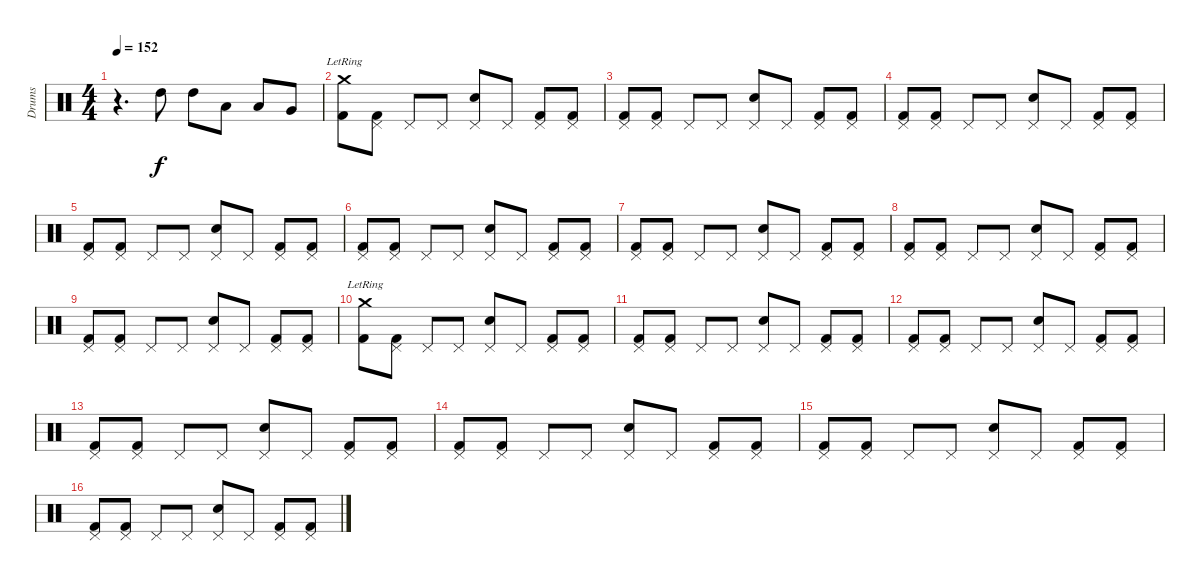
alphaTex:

\track ("Drums" "Drums") {instrument percussion}
\staff {score}
\articulation defaults
\ts (4 4)
\tempo 152
\clef neutral
\ks c
r.4{d dy f} "High Tom (hit)".8 "High Tom (hit)".8 "Low Tom (hit)".8 "Low Tom (hit)".8 "Very Low Tom (hit)".8 |
("Crash medium (hit)"{lr} "Kick (hit) 2").8 ("Pedal Hi-Hat (hit)" "Kick (hit) 2").8 "Pedal Hi-Hat (hit)".8 "Pedal Hi-Hat (hit)".8 ("Pedal Hi-Hat (hit)" "Electric Snare (hit)").8 "Pedal Hi-Hat (hit)".8 ("Pedal Hi-Hat (hit)" "Kick (hit) 2").8 ("Pedal Hi-Hat (hit)" "Kick (hit) 2").8 |
("Pedal Hi-Hat (hit)" "Kick (hit) 2").8 ("Pedal Hi-Hat (hit)" "Kick (hit) 2").8 "Pedal Hi-Hat (hit)".8 "Pedal Hi-Hat (hit)".8 ("Pedal Hi-Hat (hit)" "Electric Snare (hit)").8 "Pedal Hi-Hat (hit)".8 ("Pedal Hi-Hat (hit)" "Kick (hit) 2").8 ("Pedal Hi-Hat (hit)" "Kick (hit) 2").8 |
("Pedal Hi-Hat (hit)" "Kick (hit) 2").8 ("Pedal Hi-Hat (hit)" "Kick (hit) 2").8 "Pedal Hi-Hat (hit)".8 "Pedal Hi-Hat (hit)".8 ("Pedal Hi-Hat (hit)" "Electric Snare (hit)").8 "Pedal Hi-Hat (hit)".8 ("Pedal Hi-Hat (hit)" "Kick (hit) 2").8 ("Pedal Hi-Hat (hit)" "Kick (hit) 2").8 |
("Pedal Hi-Hat (hit)" "Kick (hit) 2").8 ("Pedal Hi-Hat (hit)" "Kick (hit) 2").8 "Pedal Hi-Hat (hit)".8 "Pedal Hi-Hat (hit)".8 ("Pedal Hi-Hat (hit)" "Electric Snare (hit)").8 "Pedal Hi-Hat (hit)".8 ("Pedal Hi-Hat (hit)" "Kick (hit) 2").8 ("Pedal Hi-Hat (hit)" "Kick (hit) 2").8 |
("Pedal Hi-Hat (hit)" "Kick (hit) 2").8 ("Pedal Hi-Hat (hit)" "Kick (hit) 2").8 "Pedal Hi-Hat (hit)".8 "Pedal Hi-Hat (hit)".8 ("Pedal Hi-Hat (hit)" "Electric Snare (hit)").8 "Pedal Hi-Hat (hit)".8 ("Pedal Hi-Hat (hit)" "Kick (hit) 2").8 ("Pedal Hi-Hat (hit)" "Kick (hit) 2").8 |
("Pedal Hi-Hat (hit)" "Kick (hit) 2").8 ("Pedal Hi-Hat (hit)" "Kick (hit) 2").8 "Pedal Hi-Hat (hit)".8 "Pedal Hi-Hat (hit)".8 ("Pedal Hi-Hat (hit)" "Electric Snare (hit)").8 "Pedal Hi-Hat (hit)".8 ("Pedal Hi-Hat (hit)" "Kick (hit) 2").8 ("Pedal Hi-Hat (hit)" "Kick (hit) 2").8 |
("Pedal Hi-Hat (hit)" "Kick (hit) 2").8 ("Pedal Hi-Hat (hit)" "Kick (hit) 2").8 "Pedal Hi-Hat (hit)".8 "Pedal Hi-Hat (hit)".8 ("Pedal Hi-Hat (hit)" "Electric Snare (hit)").8 "Pedal Hi-Hat (hit)".8 ("Pedal Hi-Hat (hit)" "Kick (hit) 2").8 ("Pedal Hi-Hat (hit)" "Kick (hit) 2").8 |
("Pedal Hi-Hat (hit)" "Kick (hit) 2").8 ("Pedal Hi-Hat (hit)" "Kick (hit) 2").8 "Pedal Hi-Hat (hit)".8 "Pedal Hi-Hat (hit)".8 ("Pedal Hi-Hat (hit)" "Electric Snare (hit)").8 "Pedal Hi-Hat (hit)".8 ("Pedal Hi-Hat (hit)" "Kick (hit) 2").8 ("Pedal Hi-Hat (hit)" "Kick (hit) 2").8 |
("Crash medium (hit)"{lr} "Kick (hit) 2").8 ("Pedal Hi-Hat (hit)" "Kick (hit) 2").8 "Pedal Hi-Hat (hit)".8 "Pedal Hi-Hat (hit)".8 ("Pedal Hi-Hat (hit)" "Electric Snare (hit)").8 "Pedal Hi-Hat (hit)".8 ("Pedal Hi-Hat (hit)" "Kick (hit) 2").8 ("Pedal Hi-Hat (hit)" "Kick (hit) 2").8 |
("Pedal Hi-Hat (hit)" "Kick (hit) 2").8 ("Pedal Hi-Hat (hit)" "Kick (hit) 2").8 "Pedal Hi-Hat (hit)".8 "Pedal Hi-Hat (hit)".8 ("Pedal Hi-Hat (hit)" "Electric Snare (hit)").8 "Pedal Hi-Hat (hit)".8 ("Pedal Hi-Hat (hit)" "Kick (hit) 2").8 ("Pedal Hi-Hat (hit)" "Kick (hit) 2").8 |
("Pedal Hi-Hat (hit)" "Kick (hit) 2").8 ("Pedal Hi-Hat (hit)" "Kick (hit) 2").8 "Pedal Hi-Hat (hit)".8 "Pedal Hi-Hat (hit)".8 ("Pedal Hi-Hat (hit)" "Electric Snare (hit)").8 "Pedal Hi-Hat (hit)".8 ("Pedal Hi-Hat (hit)" "Kick (hit) 2").8 ("Pedal Hi-Hat (hit)" "Kick (hit) 2").8 |
("Pedal Hi-Hat (hit)" "Kick (hit) 2").8 ("Pedal Hi-Hat (hit)" "Kick (hit) 2").8 "Pedal Hi-Hat (hit)".8 "Pedal Hi-Hat (hit)".8 ("Pedal Hi-Hat (hit)" "Electric Snare (hit)").8 "Pedal Hi-Hat (hit)".8 ("Pedal Hi-Hat (hit)" "Kick (hit) 2").8 ("Pedal Hi-Hat (hit)" "Kick (hit) 2").8 |
("Pedal Hi-Hat (hit)" "Kick (hit) 2").8 ("Pedal Hi-Hat (hit)" "Kick (hit) 2").8 "Pedal Hi-Hat (hit)".8 "Pedal Hi-Hat (hit)".8 ("Pedal Hi-Hat (hit)" "Electric Snare (hit)").8 "Pedal Hi-Hat (hit)".8 ("Pedal Hi-Hat (hit)" "Kick (hit) 2").8 ("Pedal Hi-Hat (hit)" "Kick (hit) 2").8 |
("Pedal Hi-Hat (hit)" "Kick (hit) 2").8 ("Pedal Hi-Hat (hit)" "Kick (hit) 2").8 "Pedal Hi-Hat (hit)".8 "Pedal Hi-Hat (hit)".8 ("Pedal Hi-Hat (hit)" "Electric Snare (hit)").8 "Pedal Hi-Hat (hit)".8 ("Pedal Hi-Hat (hit)" "Kick (hit) 2").8 ("Pedal Hi-Hat (hit)" "Kick (hit) 2").8 |
("Pedal Hi-Hat (hit)" "Kick (hit) 2").8 ("Pedal Hi-Hat (hit)" "Kick (hit) 2").8 "Pedal Hi-Hat (hit)".8 "Pedal Hi-Hat (hit)".8 ("Pedal Hi-Hat (hit)" "Electric Snare (hit)").8 "Pedal Hi-Hat (hit)".8 ("Pedal Hi-Hat (hit)" "Kick (hit) 2").8 ("Pedal Hi-Hat (hit)" "Kick (hit) 2").8
